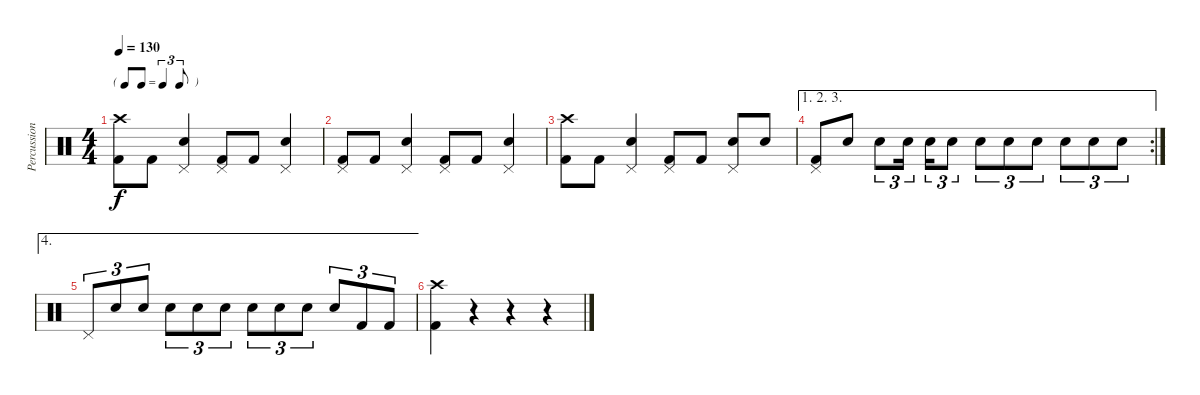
\track ("Percussion" "Percussion") {instrument percussion}
\staff {score}
\articulation defaults
\ts (4 4)
\tf triplet8th
\tempo 130
\clef neutral
\ks c
("Crash high (hit)" "Kick (hit) 2").8{dy f} "Kick (hit) 2".8 ("Pedal Hi-Hat (hit)" "Electric Snare (hit)").4 ("Pedal Hi-Hat (hit)" "Kick (hit) 2").8 "Kick (hit) 2".8 ("Pedal Hi-Hat (hit)" "Electric Snare (hit)").4 |
("Pedal Hi-Hat (hit)" "Kick (hit) 2").8 "Kick (hit) 2".8 ("Pedal Hi-Hat (hit)" "Electric Snare (hit)").4 ("Pedal Hi-Hat (hit)" "Kick (hit) 2").8 "Kick (hit) 2".8 ("Pedal Hi-Hat (hit)" "Electric Snare (hit)").4 |
("Crash high (hit)" "Kick (hit) 2").8 "Kick (hit) 2".8 ("Pedal Hi-Hat (hit)" "Electric Snare (hit)").4 ("Pedal Hi-Hat (hit)" "Kick (hit) 2").8 "Kick (hit) 2".8 ("Pedal Hi-Hat (hit)" "Electric Snare (hit)").8 "Electric Snare (hit)".8 |
\ae (1 2 3)
\rc 2
("Pedal Hi-Hat (hit)" "Kick (hit) 2").8 "Electric Snare (hit)".8 "Electric Snare (hit)".8{tu (3 2)} "Electric Snare (hit)".16{tu (3 2)} "Electric Snare (hit)".16{tu (3 2)} "Electric Snare (hit)".8{tu (3 2)} "Electric Snare (hit)".8{tu (3 2)} "Electric Snare (hit)".8{tu (3 2)} "Electric Snare (hit)".8{tu (3 2)} "Electric Snare (hit)".8{tu (3 2)} "Electric Snare (hit)".8{tu (3 2)} "Electric Snare (hit)".8{tu (3 2)} |
\ae 4 "Pedal Hi-Hat (hit)".8{tu (3 2)} "Electric Snare (hit)".8{tu (3 2)} "Electric Snare (hit)".8{tu (3 2)} "Electric Snare (hit)".8{tu (3 2)} "Electric Snare (hit)".8{tu (3 2)} "Electric Snare (hit)".8{tu (3 2)} "Electric Snare (hit)".8{tu (3 2)} "Electric Snare (hit)".8{tu (3 2)} "Electric Snare (hit)".8{tu (3 2)} "Electric Snare (hit)".8{tu (3 2)} "Kick (hit) 2".8{tu (3 2)} "Kick (hit) 2".8{tu (3 2)}
|
("Crash high (hit)" "Kick (hit) 2").4 r.4 r.4 r.4
